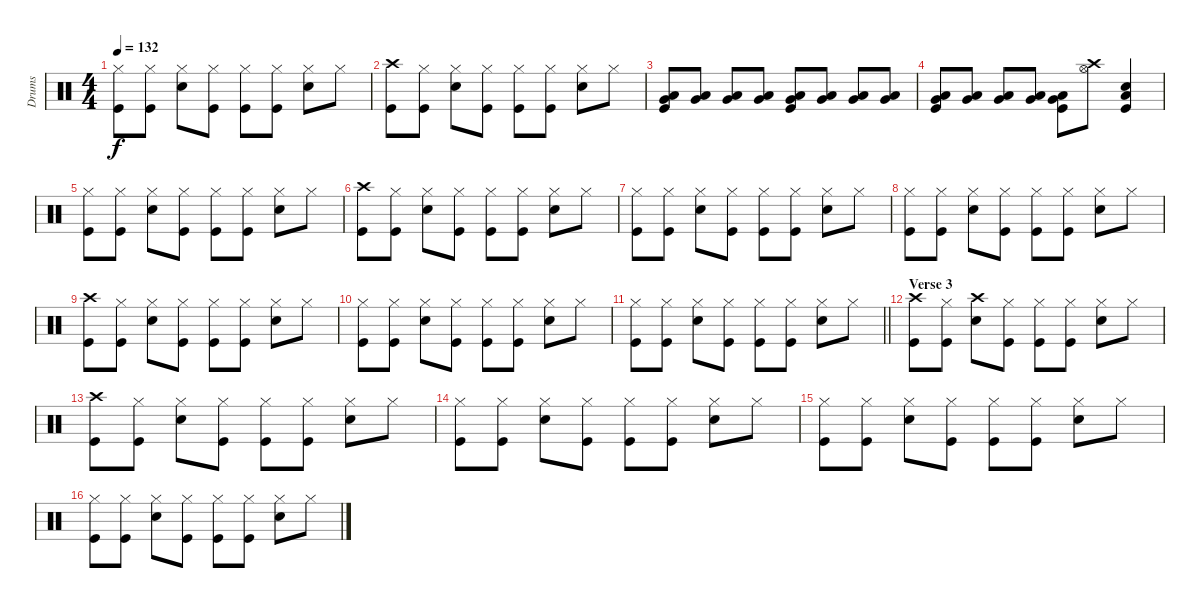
\track ("Drums" "Drums") {instrument percussion}
\staff {score}
\articulation defaults
\ts (4 4)
\tempo 132
\clef neutral
\ks c
("Hi-Hat (closed)" "Kick (hit)").8{dy f} ("Hi-Hat (closed)" "Kick (hit)").8 ("Hi-Hat (closed)" "Snare (hit) 2").8 ("Hi-Hat (closed)" "Kick (hit)").8 ("Hi-Hat (closed)" "Kick (hit)").8 ("Kick (hit)" "Hi-Hat (closed)").8 ("Hi-Hat (closed)" "Snare (hit) 2").8 "Hi-Hat (closed)".8 |
("Kick (hit)" "Crash high (hit)").8 ("Kick (hit)" "Hi-Hat (closed)").8 ("Hi-Hat (closed)" "Snare (hit) 2").8 ("Hi-Hat (closed)" "Kick (hit)").8 ("Kick (hit)" "Hi-Hat (closed)").8 ("Hi-Hat (closed)" "Kick (hit)").8 ("Snare (hit) 2" "Hi-Hat (closed)").8 "Hi-Hat (closed)".8 |
("Kick (hit)" "Low Tom (hit)" "Very Low Tom (hit)").8 ("Low Tom (hit)" "Very Low Tom (hit)").8 ("Low Tom (hit)" "Very Low Tom (hit)").8 ("Low Tom (hit)" "Very Low Tom (hit)").8 ("Kick (hit)" "Very Low Tom (hit)" "Low Tom (hit)").8 ("Very Low Tom (hit)" "Low Tom (hit)").8 ("Low Tom (hit)" "Very Low Tom (hit)").8 ("Low Tom (hit)" "Very Low Tom (hit)").8 |
("Kick (hit)" "Very Low Tom (hit)" "Low Floor Tom (hit)").8 ("Low Floor Tom (hit)" "Very Low Tom (hit)").8 ("Very Low Tom (hit)" "Low Floor Tom (hit)").8 ("Very Low Tom (hit)" "Low Floor Tom (hit)").8 ("Very Low Tom (hit)" "Low Floor Tom (hit)" "Kick (hit)").8 ("Hi-Hat (open)" "Crash high (hit)").8 ("Low Floor Tom (hit)" "Kick (hit)" "Snare (hit) 2").4 |
("Hi-Hat (closed)" "Kick (hit)").8 ("Hi-Hat (closed)" "Kick (hit)").8 ("Hi-Hat (closed)" "Snare (hit) 2").8 ("Hi-Hat (closed)" "Kick (hit)").8 ("Hi-Hat (closed)" "Kick (hit)").8 ("Kick (hit)" "Hi-Hat (closed)").8 ("Hi-Hat (closed)" "Snare (hit) 2").8 "Hi-Hat (closed)".8 |
("Kick (hit)" "Crash high (hit)").8 ("Kick (hit)" "Hi-Hat (closed)").8 ("Hi-Hat (closed)" "Snare (hit) 2").8 ("Hi-Hat (closed)" "Kick (hit)").8 ("Kick (hit)" "Hi-Hat (closed)").8 ("Hi-Hat (closed)" "Kick (hit)").8 ("Snare (hit) 2" "Hi-Hat (closed)").8 "Hi-Hat (closed)".8 |
("Hi-Hat (closed)" "Kick (hit)").8 ("Hi-Hat (closed)" "Kick (hit)").8 ("Hi-Hat (closed)" "Snare (hit) 2").8 ("Hi-Hat (closed)" "Kick (hit)").8 ("Hi-Hat (closed)" "Kick (hit)").8 ("Kick (hit)" "Hi-Hat (closed)").8 ("Hi-Hat (closed)" "Snare (hit) 2").8 "Hi-Hat (closed)".8 |
("Kick (hit)" "Hi-Hat (closed)").8 ("Hi-Hat (closed)" "Kick (hit)").8 ("Hi-Hat (closed)" "Snare (hit) 2").8 ("Hi-Hat (closed)" "Kick (hit)").8 ("Kick (hit)" "Hi-Hat (closed)").8 ("Hi-Hat (closed)" "Kick (hit)").8 ("Snare (hit) 2" "Hi-Hat (closed)").8 "Hi-Hat (closed)".8 |
("Crash high (hit)" "Kick (hit)").8 ("Hi-Hat (closed)" "Kick (hit)").8 ("Hi-Hat (closed)" "Snare (hit) 2").8 ("Hi-Hat (closed)" "Kick (hit)").8 ("Hi-Hat (closed)" "Kick (hit)").8 ("Kick (hit)" "Hi-Hat (closed)").8 ("Hi-Hat (closed)" "Snare (hit) 2").8 "Hi-Hat (closed)".8 |
("Kick (hit)" "Hi-Hat (closed)").8 ("Kick (hit)" "Hi-Hat (closed)").8 ("Hi-Hat (closed)" "Snare (hit) 2").8 ("Hi-Hat (closed)" "Kick (hit)").8 ("Kick (hit)" "Hi-Hat (closed)").8 ("Hi-Hat (closed)" "Kick (hit)").8 ("Snare (hit) 2" "Hi-Hat (closed)").8 "Hi-Hat (closed)".8 |
\barLineRight lightlight
("Hi-Hat (closed)" "Kick (hit)").8 ("Hi-Hat (closed)" "Kick (hit)").8 ("Hi-Hat (closed)" "Snare (hit) 2").8 ("Hi-Hat (closed)" "Kick (hit)").8 ("Hi-Hat (closed)" "Kick (hit)").8 ("Kick (hit)" "Hi-Hat (closed)").8 ("Hi-Hat (closed)" "Snare (hit) 2").8 "Hi-Hat (closed)".8 |
\section ("" "Verse 3")
("Kick (hit)" "Crash high (hit)").8 ("Kick (hit)" "Hi-Hat (closed)").8 ("Crash high (hit)" "Snare (hit) 2").8 ("Hi-Hat (closed)" "Kick (hit)").8 ("Kick (hit)" "Hi-Hat (closed)").8 ("Hi-Hat (closed)" "Kick (hit)").8 ("Snare (hit) 2" "Hi-Hat (closed)").8 "Hi-Hat (closed)".8 |
("Crash high (hit)" "Kick (hit)").8 ("Hi-Hat (closed)" "Kick (hit)").8 ("Hi-Hat (closed)" "Snare (hit) 2").8 ("Hi-Hat (closed)" "Kick (hit)").8 ("Hi-Hat (closed)" "Kick (hit)").8 ("Kick (hit)" "Hi-Hat (closed)").8 ("Hi-Hat (closed)" "Snare (hit) 2").8 "Hi-Hat (closed)".8 |
("Kick (hit)" "Hi-Hat (closed)").8 ("Kick (hit)" "Hi-Hat (closed)").8 ("Hi-Hat (closed)" "Snare (hit) 2").8 ("Hi-Hat (closed)" "Kick (hit)").8 ("Kick (hit)" "Hi-Hat (closed)").8 ("Hi-Hat (closed)" "Kick (hit)").8 ("Snare (hit) 2" "Hi-Hat (closed)").8 "Hi-Hat (closed)".8 |
("Hi-Hat (closed)" "Kick (hit)").8 ("Hi-Hat (closed)" "Kick (hit)").8 ("Hi-Hat (closed)" "Snare (hit) 2").8 ("Hi-Hat (closed)" "Kick (hit)").8 ("Hi-Hat (closed)" "Kick (hit)").8 ("Kick (hit)" "Hi-Hat (closed)").8 ("Hi-Hat (closed)" "Snare (hit) 2").8 "Hi-Hat (closed)".8 |
("Kick (hit)" "Hi-Hat (closed)").8 ("Kick (hit)" "Hi-Hat (closed)").8 ("Hi-Hat (closed)" "Snare (hit) 2").8 ("Hi-Hat (closed)" "Kick (hit)").8 ("Kick (hit)" "Hi-Hat (closed)").8 ("Hi-Hat (closed)" "Kick (hit)").8 ("Snare (hit) 2" "Hi-Hat (closed)").8 "Hi-Hat (closed)".8
